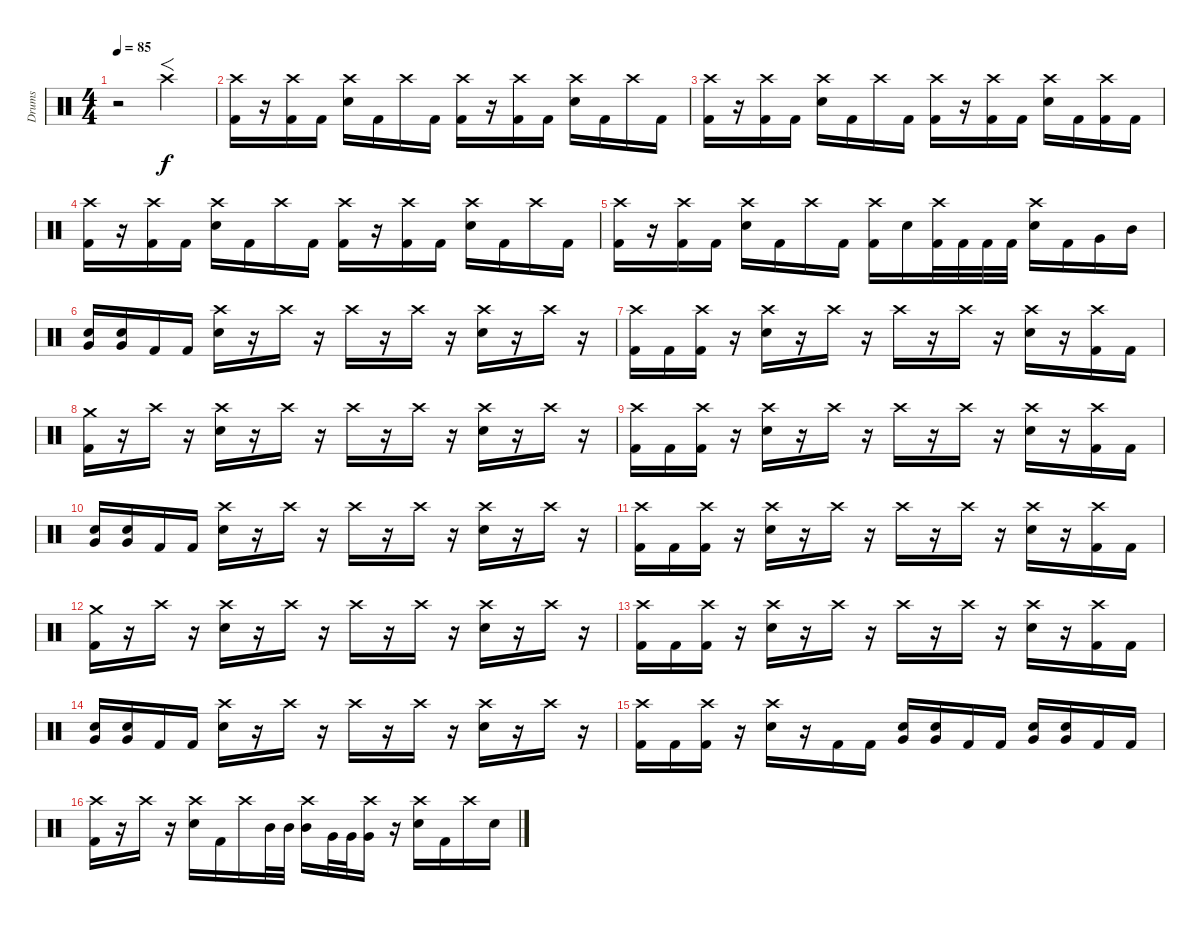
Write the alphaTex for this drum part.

\track ("Drums" "Drums") {instrument percussion}
\staff {score}
\articulation defaults
\ts (4 4)
\tempo 85
\clef neutral
\ks c
r.2{dy f} "Crash high (hit)".2{f} |
("Crash high (hit)" "Kick (hit) 2").16 r.16 ("Crash high (hit)" "Kick (hit) 2").16 "Kick (hit) 2".16 ("Crash high (hit)" "Snare (hit) 2").16 "Kick (hit) 2".16 "Crash high (hit)".16 "Kick (hit) 2".16 ("Crash high (hit)" "Kick (hit) 2").16 r.16 ("Crash high (hit)" "Kick (hit) 2").16 "Kick (hit) 2".16 ("Crash high (hit)" "Snare (hit) 2").16 "Kick (hit) 2".16 "Crash high (hit)".16 "Kick (hit) 2".16 |
("Crash high (hit)" "Kick (hit) 2").16 r.16 ("Crash high (hit)" "Kick (hit) 2").16 "Kick (hit) 2".16 ("Crash high (hit)" "Snare (hit) 2").16 "Kick (hit) 2".16 "Crash high (hit)".16 "Kick (hit) 2".16 ("Crash high (hit)" "Kick (hit) 2").16 r.16 ("Crash high (hit)" "Kick (hit) 2").16 "Kick (hit) 2".16 ("Crash high (hit)" "Snare (hit) 2").16 "Kick (hit) 2".16 ("Crash high (hit)" "Kick (hit) 2").16 "Kick (hit) 2".16 |
("Crash high (hit)" "Kick (hit) 2").16 r.16 ("Crash high (hit)" "Kick (hit) 2").16 "Kick (hit) 2".16 ("Crash high (hit)" "Snare (hit) 2").16 "Kick (hit) 2".16 "Crash high (hit)".16 "Kick (hit) 2".16 ("Crash high (hit)" "Kick (hit) 2").16 r.16 ("Crash high (hit)" "Kick (hit) 2").16 "Kick (hit) 2".16 ("Crash high (hit)" "Snare (hit) 2").16 "Kick (hit) 2".16 "Crash high (hit)".16 "Kick (hit) 2".16 |
("Crash high (hit)" "Kick (hit) 2").16 r.16 ("Crash high (hit)" "Kick (hit) 2").16 "Kick (hit) 2".16 ("Crash high (hit)" "Snare (hit) 2").16 "Kick (hit) 2".16 "Crash high (hit)".16 "Kick (hit) 2".16 ("Crash high (hit)" "Kick (hit) 2").16 "Snare (hit) 2".16 ("Crash high (hit)" "Kick (hit) 2").32 "Kick (hit) 2".32 "Kick (hit) 2".32 "Kick (hit) 2".32 ("Crash high (hit)" "Snare (hit) 2").16 "Kick (hit) 2".16 "Very Low Tom (hit)".16 "Mid Tom (hit)".16 |
("Very Low Tom (hit)" "Snare (hit) 2").16 ("Very Low Tom (hit)" "Snare (hit) 2").16 "Kick (hit) 2".16 "Kick (hit) 2".16 ("Crash high (hit)" "Snare (hit) 2").16 r.16 "Crash high (hit)".16 r.16 "Crash high (hit)".16 r.16 "Crash high (hit)".16 r.16 ("Crash high (hit)" "Snare (hit) 2").16 r.16 "Crash high (hit)".16 r.16 |
("Crash high (hit)" "Kick (hit) 2").16 "Kick (hit) 2".16 ("Crash high (hit)" "Kick (hit) 2").16 r.16 ("Crash high (hit)" "Snare (hit) 2").16 r.16 "Crash high (hit)".16 r.16 "Crash high (hit)".16 r.16 "Crash high (hit)".16 r.16 ("Crash high (hit)" "Snare (hit) 2").16 r.16 ("Crash high (hit)" "Kick (hit) 2").16 "Kick (hit) 2".16 |
("Crash medium (hit)" "Kick (hit) 2").16 r.16 "Crash high (hit)".16 r.16 ("Crash high (hit)" "Snare (hit) 2").16 r.16 "Crash high (hit)".16 r.16 "Crash high (hit)".16 r.16 "Crash high (hit)".16 r.16 ("Crash high (hit)" "Snare (hit) 2").16 r.16 "Crash high (hit)".16 r.16 |
("Crash high (hit)" "Kick (hit) 2").16 "Kick (hit) 2".16 ("Crash high (hit)" "Kick (hit) 2").16 r.16 ("Crash high (hit)" "Snare (hit) 2").16 r.16 "Crash high (hit)".16 r.16 "Crash high (hit)".16 r.16 "Crash high (hit)".16 r.16 ("Crash high (hit)" "Snare (hit) 2").16 r.16 ("Crash high (hit)" "Kick (hit) 2").16 "Kick (hit) 2".16 |
("Very Low Tom (hit)" "Snare (hit) 2").16 ("Very Low Tom (hit)" "Snare (hit) 2").16 "Kick (hit) 2".16 "Kick (hit) 2".16 ("Crash high (hit)" "Snare (hit) 2").16 r.16 "Crash high (hit)".16 r.16 "Crash high (hit)".16 r.16 "Crash high (hit)".16 r.16 ("Crash high (hit)" "Snare (hit) 2").16 r.16 "Crash high (hit)".16 r.16 |
("Crash high (hit)" "Kick (hit) 2").16 "Kick (hit) 2".16 ("Crash high (hit)" "Kick (hit) 2").16 r.16 ("Crash high (hit)" "Snare (hit) 2").16 r.16 "Crash high (hit)".16 r.16 "Crash high (hit)".16 r.16 "Crash high (hit)".16 r.16 ("Crash high (hit)" "Snare (hit) 2").16 r.16 ("Crash high (hit)" "Kick (hit) 2").16 "Kick (hit) 2".16 |
("Crash medium (hit)" "Kick (hit) 2").16 r.16 "Crash high (hit)".16 r.16 ("Crash high (hit)" "Snare (hit) 2").16 r.16 "Crash high (hit)".16 r.16 "Crash high (hit)".16 r.16 "Crash high (hit)".16 r.16 ("Crash high (hit)" "Snare (hit) 2").16 r.16 "Crash high (hit)".16 r.16 |
("Crash high (hit)" "Kick (hit) 2").16 "Kick (hit) 2".16 ("Crash high (hit)" "Kick (hit) 2").16 r.16 ("Crash high (hit)" "Snare (hit) 2").16 r.16 "Crash high (hit)".16 r.16 "Crash high (hit)".16 r.16 "Crash high (hit)".16 r.16 ("Crash high (hit)" "Snare (hit) 2").16 r.16 ("Crash high (hit)" "Kick (hit) 2").16 "Kick (hit) 2".16 |
("Very Low Tom (hit)" "Snare (hit) 2").16 ("Very Low Tom (hit)" "Snare (hit) 2").16 "Kick (hit) 2".16 "Kick (hit) 2".16 ("Crash high (hit)" "Snare (hit) 2").16 r.16 "Crash high (hit)".16 r.16 "Crash high (hit)".16 r.16 "Crash high (hit)".16 r.16 ("Crash high (hit)" "Snare (hit) 2").16 r.16 "Crash high (hit)".16 r.16 |
("Crash high (hit)" "Kick (hit) 2").16 "Kick (hit) 2".16 ("Crash high (hit)" "Kick (hit) 2").16 r.16 ("Crash high (hit)" "Snare (hit) 2").16 r.16 "Kick (hit) 2".16 "Kick (hit) 2".16 ("Very Low Tom (hit)" "Snare (hit) 2").16 ("Very Low Tom (hit)" "Snare (hit) 2").16 "Kick (hit) 2".16 "Kick (hit) 2".16 ("Very Low Tom (hit)" "Snare (hit) 2").16 ("Very Low Tom (hit)" "Snare (hit) 2").16 "Kick (hit) 2".16 "Kick (hit) 2".16 |
("Crash high (hit)" "Kick (hit) 2").16 r.16 "Crash high (hit)".16 r.16 ("Crash high (hit)" "Snare (hit) 2").16 "Kick (hit) 2".16 "Crash high (hit)".16 "Mid Tom (hit)".32 "Mid Tom (hit)".32 ("Crash high (hit)" "Mid Tom (hit)").16 "Very Low Tom (hit)".32 "Very Low Tom (hit)".32 ("Crash high (hit)" "Very Low Tom (hit)").16 r.16 ("Crash high (hit)" "Snare (hit) 2").16 "Kick (hit) 2".16 "Crash high (hit)".16 "Snare (hit) 2".16
